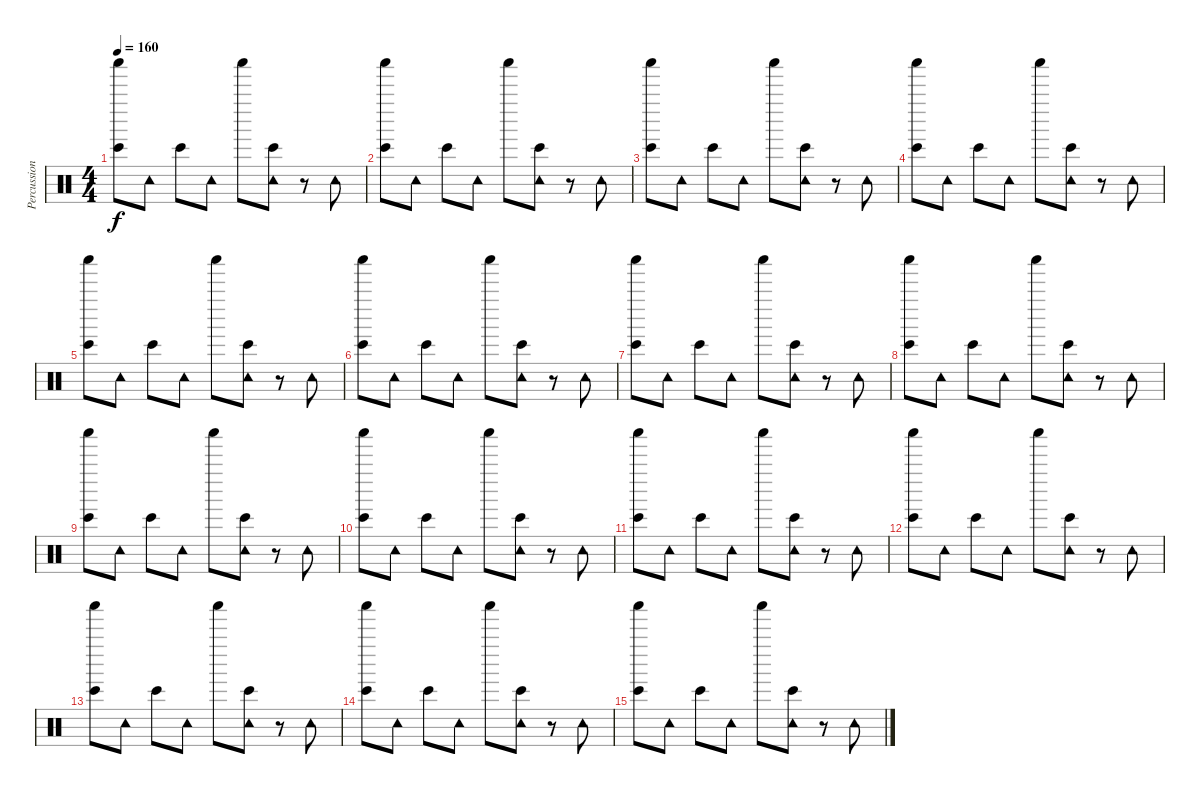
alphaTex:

\track ("Percussions" "Percussion") {instrument percussion}
\staff {score}
\articulation defaults
\ts (4 4)
\tempo 160
\clef neutral
\ks c
("Bongo High (hit)" "Shaker (hit)").8{dy f} "Tambourine (hit)".8 "Bongo High (hit)".8 "Tambourine (hit)".8 "Shaker (hit)".8 ("Bongo High (hit)" "Tambourine (hit)").8 r.8 "Tambourine (hit)".8 |
("Bongo High (hit)" "Shaker (hit)").8 "Tambourine (hit)".8 "Bongo High (hit)".8 "Tambourine (hit)".8 "Shaker (hit)".8 ("Bongo High (hit)" "Tambourine (hit)").8 r.8 "Tambourine (hit)".8 |
("Bongo High (hit)" "Shaker (hit)").8 "Tambourine (hit)".8 "Bongo High (hit)".8 "Tambourine (hit)".8 "Shaker (hit)".8 ("Bongo High (hit)" "Tambourine (hit)").8 r.8 "Tambourine (hit)".8 |
("Bongo High (hit)" "Shaker (hit)").8 "Tambourine (hit)".8 "Bongo High (hit)".8 "Tambourine (hit)".8 "Shaker (hit)".8 ("Bongo High (hit)" "Tambourine (hit)").8 r.8 "Tambourine (hit)".8 |
("Bongo High (hit)" "Shaker (hit)").8 "Tambourine (hit)".8 "Bongo High (hit)".8 "Tambourine (hit)".8 "Shaker (hit)".8 ("Bongo High (hit)" "Tambourine (hit)").8 r.8 "Tambourine (hit)".8 |
("Bongo High (hit)" "Shaker (hit)").8 "Tambourine (hit)".8 "Bongo High (hit)".8 "Tambourine (hit)".8 "Shaker (hit)".8 ("Bongo High (hit)" "Tambourine (hit)").8 r.8 "Tambourine (hit)".8 |
("Bongo High (hit)" "Shaker (hit)").8 "Tambourine (hit)".8 "Bongo High (hit)".8 "Tambourine (hit)".8 "Shaker (hit)".8 ("Bongo High (hit)" "Tambourine (hit)").8 r.8 "Tambourine (hit)".8 |
("Bongo High (hit)" "Shaker (hit)").8 "Tambourine (hit)".8 "Bongo High (hit)".8 "Tambourine (hit)".8 "Shaker (hit)".8 ("Bongo High (hit)" "Tambourine (hit)").8 r.8 "Tambourine (hit)".8 |
("Bongo High (hit)" "Shaker (hit)").8 "Tambourine (hit)".8 "Bongo High (hit)".8 "Tambourine (hit)".8 "Shaker (hit)".8 ("Bongo High (hit)" "Tambourine (hit)").8 r.8 "Tambourine (hit)".8 |
("Bongo High (hit)" "Shaker (hit)").8 "Tambourine (hit)".8 "Bongo High (hit)".8 "Tambourine (hit)".8 "Shaker (hit)".8 ("Bongo High (hit)" "Tambourine (hit)").8 r.8 "Tambourine (hit)".8 |
("Bongo High (hit)" "Shaker (hit)").8 "Tambourine (hit)".8 "Bongo High (hit)".8 "Tambourine (hit)".8 "Shaker (hit)".8 ("Bongo High (hit)" "Tambourine (hit)").8 r.8 "Tambourine (hit)".8 |
("Bongo High (hit)" "Shaker (hit)").8 "Tambourine (hit)".8 "Bongo High (hit)".8 "Tambourine (hit)".8 "Shaker (hit)".8 ("Bongo High (hit)" "Tambourine (hit)").8 r.8 "Tambourine (hit)".8 |
("Bongo High (hit)" "Shaker (hit)").8 "Tambourine (hit)".8 "Bongo High (hit)".8 "Tambourine (hit)".8 "Shaker (hit)".8 ("Bongo High (hit)" "Tambourine (hit)").8 r.8 "Tambourine (hit)".8 |
("Bongo High (hit)" "Shaker (hit)").8 "Tambourine (hit)".8 "Bongo High (hit)".8 "Tambourine (hit)".8 "Shaker (hit)".8 ("Bongo High (hit)" "Tambourine (hit)").8 r.8 "Tambourine (hit)".8 |
("Bongo High (hit)" "Shaker (hit)").8 "Tambourine (hit)".8 "Bongo High (hit)".8 "Tambourine (hit)".8 "Shaker (hit)".8 ("Bongo High (hit)" "Tambourine (hit)").8 r.8 "Tambourine (hit)".8
